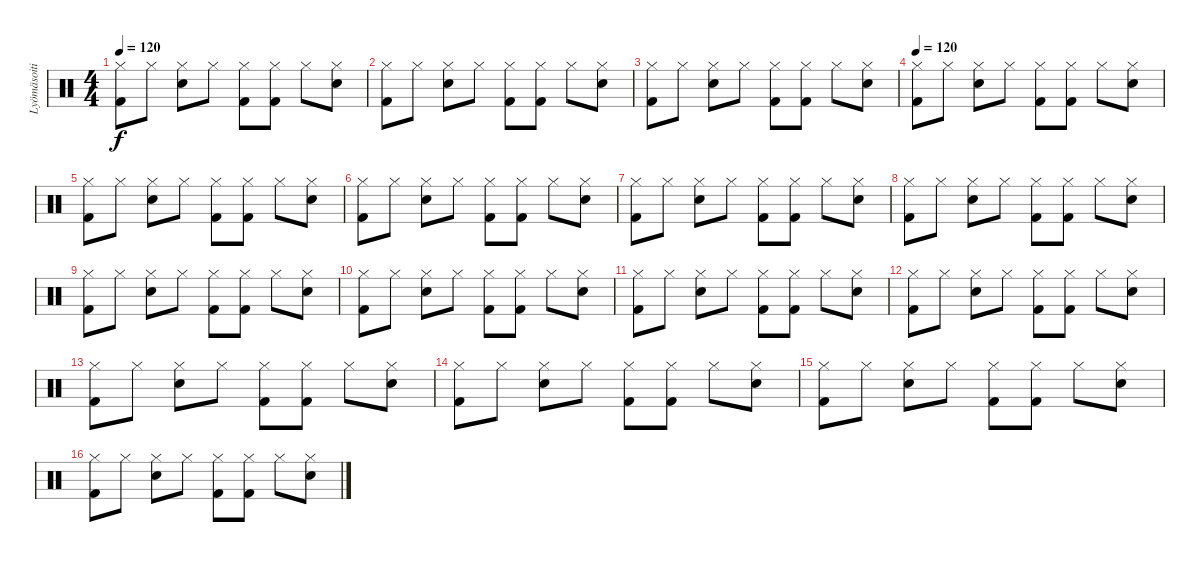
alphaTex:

\track ("Lyömäsoitin" "Lyömäsoiti") {instrument percussion}
\staff {score}
\articulation defaults
\ts (4 4)
\tempo 120
\clef neutral
\ks c
("Hi-Hat (closed)" "Kick (hit) 2").8{dy f} "Hi-Hat (closed)".8 ("Hi-Hat (closed)" "Snare (hit) 2").8 "Hi-Hat (closed)".8 ("Hi-Hat (closed)" "Kick (hit) 2").8 ("Hi-Hat (closed)" "Kick (hit) 2").8 "Hi-Hat (closed)".8 ("Hi-Hat (closed)" "Snare (hit) 2").8 |
("Hi-Hat (closed)" "Kick (hit) 2").8 "Hi-Hat (closed)".8 ("Hi-Hat (closed)" "Snare (hit) 2").8 "Hi-Hat (closed)".8 ("Hi-Hat (closed)" "Kick (hit) 2").8 ("Hi-Hat (closed)" "Kick (hit) 2").8 "Hi-Hat (closed)".8 ("Hi-Hat (closed)" "Snare (hit) 2").8 |
("Hi-Hat (closed)" "Kick (hit) 2").8 "Hi-Hat (closed)".8 ("Hi-Hat (closed)" "Snare (hit) 2").8 "Hi-Hat (closed)".8 ("Hi-Hat (closed)" "Kick (hit) 2").8 ("Hi-Hat (closed)" "Kick (hit) 2").8 "Hi-Hat (closed)".8 ("Hi-Hat (closed)" "Snare (hit) 2").8 |
\tempo 120
("Hi-Hat (closed)" "Kick (hit) 2").8 "Hi-Hat (closed)".8 ("Hi-Hat (closed)" "Snare (hit) 2").8 "Hi-Hat (closed)".8 ("Hi-Hat (closed)" "Kick (hit) 2").8 ("Hi-Hat (closed)" "Kick (hit) 2").8 "Hi-Hat (closed)".8 ("Hi-Hat (closed)" "Snare (hit) 2").8 |
("Hi-Hat (closed)" "Kick (hit) 2").8 "Hi-Hat (closed)".8 ("Hi-Hat (closed)" "Snare (hit) 2").8 "Hi-Hat (closed)".8 ("Hi-Hat (closed)" "Kick (hit) 2").8 ("Hi-Hat (closed)" "Kick (hit) 2").8 "Hi-Hat (closed)".8 ("Hi-Hat (closed)" "Snare (hit) 2").8 |
("Hi-Hat (closed)" "Kick (hit) 2").8 "Hi-Hat (closed)".8 ("Hi-Hat (closed)" "Snare (hit) 2").8 "Hi-Hat (closed)".8 ("Hi-Hat (closed)" "Kick (hit) 2").8 ("Hi-Hat (closed)" "Kick (hit) 2").8 "Hi-Hat (closed)".8 ("Hi-Hat (closed)" "Snare (hit) 2").8 |
("Hi-Hat (closed)" "Kick (hit) 2").8 "Hi-Hat (closed)".8 ("Hi-Hat (closed)" "Snare (hit) 2").8 "Hi-Hat (closed)".8 ("Hi-Hat (closed)" "Kick (hit) 2").8 ("Hi-Hat (closed)" "Kick (hit) 2").8 "Hi-Hat (closed)".8 ("Hi-Hat (closed)" "Snare (hit) 2").8 |
("Hi-Hat (closed)" "Kick (hit) 2").8 "Hi-Hat (closed)".8 ("Hi-Hat (closed)" "Snare (hit) 2").8 "Hi-Hat (closed)".8 ("Hi-Hat (closed)" "Kick (hit) 2").8 ("Hi-Hat (closed)" "Kick (hit) 2").8 "Hi-Hat (closed)".8 ("Hi-Hat (closed)" "Snare (hit) 2").8 |
("Hi-Hat (closed)" "Kick (hit) 2").8 "Hi-Hat (closed)".8 ("Hi-Hat (closed)" "Snare (hit) 2").8 "Hi-Hat (closed)".8 ("Hi-Hat (closed)" "Kick (hit) 2").8 ("Hi-Hat (closed)" "Kick (hit) 2").8 "Hi-Hat (closed)".8 ("Hi-Hat (closed)" "Snare (hit) 2").8 |
("Hi-Hat (closed)" "Kick (hit) 2").8 "Hi-Hat (closed)".8 ("Hi-Hat (closed)" "Snare (hit) 2").8 "Hi-Hat (closed)".8 ("Hi-Hat (closed)" "Kick (hit) 2").8 ("Hi-Hat (closed)" "Kick (hit) 2").8 "Hi-Hat (closed)".8 ("Hi-Hat (closed)" "Snare (hit) 2").8 |
("Hi-Hat (closed)" "Kick (hit) 2").8 "Hi-Hat (closed)".8 ("Hi-Hat (closed)" "Snare (hit) 2").8 "Hi-Hat (closed)".8 ("Hi-Hat (closed)" "Kick (hit) 2").8 ("Hi-Hat (closed)" "Kick (hit) 2").8 "Hi-Hat (closed)".8 ("Hi-Hat (closed)" "Snare (hit) 2").8 |
("Hi-Hat (closed)" "Kick (hit) 2").8 "Hi-Hat (closed)".8 ("Hi-Hat (closed)" "Snare (hit) 2").8 "Hi-Hat (closed)".8 ("Hi-Hat (closed)" "Kick (hit) 2").8 ("Hi-Hat (closed)" "Kick (hit) 2").8 "Hi-Hat (closed)".8 ("Hi-Hat (closed)" "Snare (hit) 2").8 |
("Hi-Hat (closed)" "Kick (hit) 2").8 "Hi-Hat (closed)".8 ("Hi-Hat (closed)" "Snare (hit) 2").8 "Hi-Hat (closed)".8 ("Hi-Hat (closed)" "Kick (hit) 2").8 ("Hi-Hat (closed)" "Kick (hit) 2").8 "Hi-Hat (closed)".8 ("Hi-Hat (closed)" "Snare (hit) 2").8 |
("Hi-Hat (closed)" "Kick (hit) 2").8 "Hi-Hat (closed)".8 ("Hi-Hat (closed)" "Snare (hit) 2").8 "Hi-Hat (closed)".8 ("Hi-Hat (closed)" "Kick (hit) 2").8 ("Hi-Hat (closed)" "Kick (hit) 2").8 "Hi-Hat (closed)".8 ("Hi-Hat (closed)" "Snare (hit) 2").8 |
("Hi-Hat (closed)" "Kick (hit) 2").8 "Hi-Hat (closed)".8 ("Hi-Hat (closed)" "Snare (hit) 2").8 "Hi-Hat (closed)".8 ("Hi-Hat (closed)" "Kick (hit) 2").8 ("Hi-Hat (closed)" "Kick (hit) 2").8 "Hi-Hat (closed)".8 ("Hi-Hat (closed)" "Snare (hit) 2").8 |
("Hi-Hat (closed)" "Kick (hit) 2").8 "Hi-Hat (closed)".8 ("Hi-Hat (closed)" "Snare (hit) 2").8 "Hi-Hat (closed)".8 ("Hi-Hat (closed)" "Kick (hit) 2").8 ("Hi-Hat (closed)" "Kick (hit) 2").8 "Hi-Hat (closed)".8 ("Hi-Hat (closed)" "Snare (hit) 2").8
